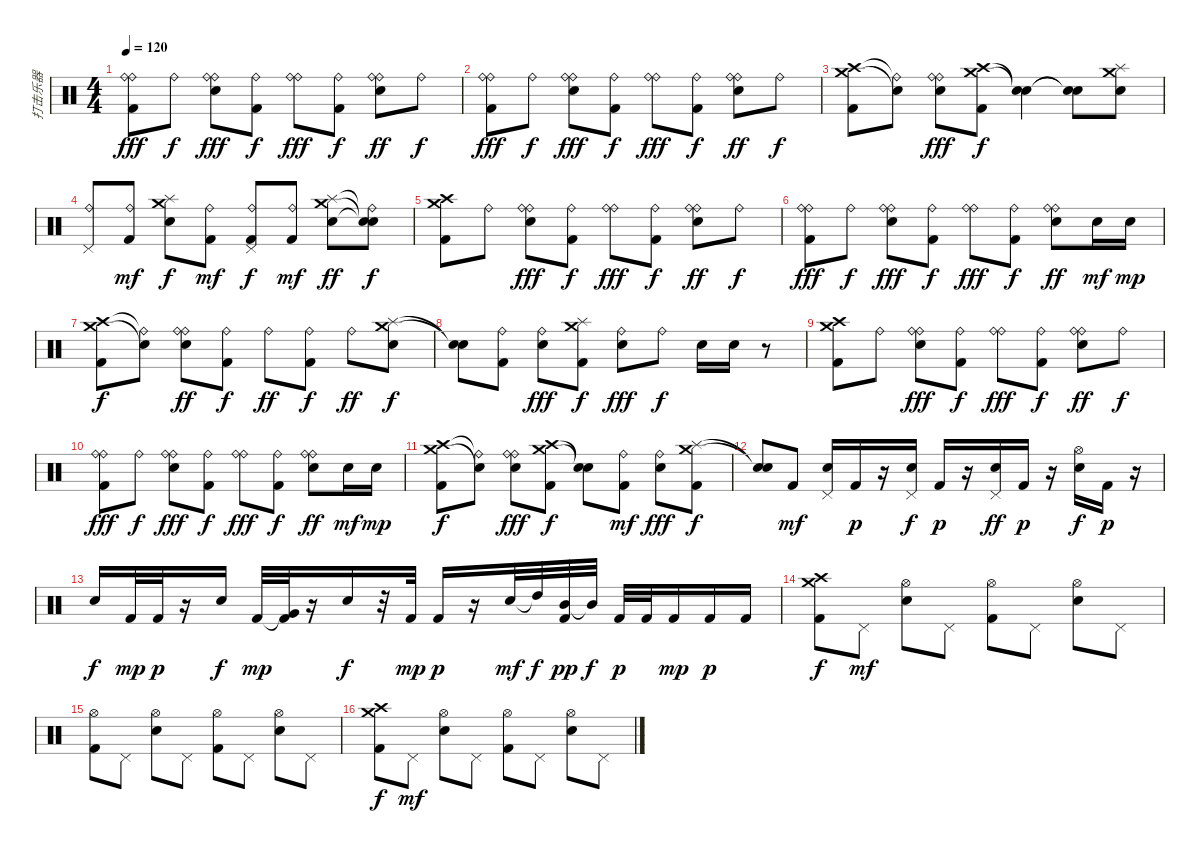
\track ("打击乐器" "打击乐器") {instrument percussion}
\staff {score}
\articulation defaults
\ts (4 4)
\tempo 120
\clef neutral
\ks c
("Ride (bell)" "Ride (bell)" "Kick (hit) 2").8{dy fff} "Ride (bell)".8{dy f} ("Ride (bell)" "Metronome (bell)" "Ride (bell)").8{dy fff} ("Ride (bell)" "Kick (hit) 2").8{dy f} ("Ride (bell)" "Ride (bell)").8{dy fff} ("Ride (bell)" "Kick (hit) 2").8{dy f} ("Ride (bell)" "Metronome (bell)" "Ride (bell)").8{dy ff} "Ride (bell)".8{dy f} |
("Ride (bell)" "Ride (bell)" "Kick (hit) 2").8{dy fff} "Ride (bell)".8{dy f} ("Ride (bell)" "Metronome (bell)" "Ride (bell)").8{dy fff} ("Ride (bell)" "Kick (hit) 2").8{dy f} ("Ride (bell)" "Ride (bell)").8{dy fff} ("Ride (bell)" "Kick (hit) 2").8{dy f} ("Ride (bell)" "Metronome (bell)" "Ride (bell)").8{dy ff} "Ride (bell)".8{dy f} |
("Crash high (hit)" "Crash medium (hit)" "Kick (hit) 2").8 ("Ride (bell)"{t} "Snare (hit)"{t}).8 ("Ride (bell)" "Metronome (bell)" "Ride (bell)").8{dy fff} ("Crash high (hit)" "Crash medium (hit)" "Kick (hit) 2").8{dy f} ("Snare (hit)"{t} "Snare (hit)"{t}).4 ("Snare (hit)"{t} "Snare (hit)"{t}).8 ("Crash medium (hit)" "Splash (hit)" "Metronome (bell)").8 |
("Ride (bell)" "Pedal Hi-Hat (hit)").8 ("Ride (bell)" "Kick (hit) 2").8{dy mf} ("Splash (hit)" "Crash medium (hit)" "Metronome (bell)").8{dy f} ("Ride (bell)" "Kick (hit) 2").8{dy mf} ("Ride (bell)" "Pedal Hi-Hat (hit)" "Kick (hit) 2").8{dy f} ("Ride (bell)" "Kick (hit) 2").8{dy mf} ("Splash (hit)" "Crash medium (hit)" "Metronome (bell)").8{dy ff} ("Ride (bell)"{t} "Snare (hit)"{t} "Snare (hit)"{t}).8{dy f} |
("Crash high (hit)" "Crash medium (hit)" "Kick (hit) 2").8 "Ride (bell)".8 ("Ride (bell)" "Metronome (bell)" "Ride (bell)").8{dy fff} ("Ride (bell)" "Kick (hit) 2").8{dy f} ("Ride (bell)" "Ride (bell)").8{dy fff} ("Ride (bell)" "Kick (hit) 2").8{dy f} ("Ride (bell)" "Metronome (bell)" "Ride (bell)").8{dy ff} "Ride (bell)".8{dy f} |
("Ride (bell)" "Ride (bell)" "Kick (hit) 2").8{dy fff} "Ride (bell)".8{dy f} ("Ride (bell)" "Metronome (bell)" "Ride (bell)").8{dy fff} ("Ride (bell)" "Kick (hit) 2").8{dy f} ("Ride (bell)" "Ride (bell)").8{dy fff} ("Ride (bell)" "Kick (hit) 2").8{dy f} ("Ride (bell)" "Metronome (bell)" "Ride (bell)").8{dy ff} "Metronome (bell)".16{dy mf} "Metronome (bell)".16{dy mp} |
("Crash high (hit)" "Crash medium (hit)" "Kick (hit) 2").8{dy f} ("Ride (bell)"{t} "Snare (hit)"{t}).8 ("Ride (bell)" "Metronome (bell)" "Ride (bell)").8{dy ff} ("Ride (bell)" "Kick (hit) 2").8{dy f} "Ride (bell)".8{dy ff} ("Ride (bell)" "Kick (hit) 2").8{dy f} "Ride (bell)".8{dy ff} ("Crash medium (hit)" "Splash (hit)" "Metronome (bell)").8{dy f} |
("Snare (hit)"{t} "Snare (hit)"{t}).8 ("Ride (bell)" "Kick (hit) 2").8 ("Ride (bell)" "Metronome (bell)").8{dy fff} ("Crash medium (hit)" "Splash (hit)" "Kick (hit) 2").8{dy f} ("Ride (bell)" "Metronome (bell)").8{dy fff} "Ride (bell)".8{dy f} "Metronome (bell)".16 "Metronome (bell)".16 r.8 |
("Crash high (hit)" "Crash medium (hit)" "Kick (hit) 2").8 "Ride (bell)".8 ("Ride (bell)" "Metronome (bell)" "Ride (bell)").8{dy fff} ("Ride (bell)" "Kick (hit) 2").8{dy f} ("Ride (bell)" "Ride (bell)").8{dy fff} ("Ride (bell)" "Kick (hit) 2").8{dy f} ("Ride (bell)" "Metronome (bell)" "Ride (bell)").8{dy ff} "Ride (bell)".8{dy f} |
("Ride (bell)" "Ride (bell)" "Kick (hit) 2").8{dy fff} "Ride (bell)".8{dy f} ("Ride (bell)" "Metronome (bell)" "Ride (bell)").8{dy fff} ("Ride (bell)" "Kick (hit) 2").8{dy f} ("Ride (bell)" "Ride (bell)").8{dy fff} ("Ride (bell)" "Kick (hit) 2").8{dy f} ("Ride (bell)" "Metronome (bell)" "Ride (bell)").8{dy ff} "Metronome (bell)".16{dy mf} "Metronome (bell)".16{dy mp} |
("Crash high (hit)" "Crash medium (hit)" "Kick (hit) 2").8{dy f} ("Ride (bell)"{t} "Snare (hit)"{t}).8 ("Ride (bell)" "Metronome (bell)" "Ride (bell)").8{dy fff} ("Crash high (hit)" "Crash medium (hit)" "Kick (hit) 2").8{dy f} ("Snare (hit)"{t} "Snare (hit)"{t}).8 ("Ride (bell)" "Kick (hit) 2").8{dy mf} ("Ride (bell)" "Metronome (bell)").8{dy fff} ("Crash medium (hit)" "Splash (hit)" "Kick (hit) 2").8{dy f} |
("Snare (hit)"{t} "Snare (hit)"{t}).8 "Kick (hit) 2".8{dy mf} ("Pedal Hi-Hat (hit)" "Metronome (bell)").16 "Kick (hit) 2".16{dy p} r.16 ("Pedal Hi-Hat (hit)" "Metronome (bell)").16{dy f} "Kick (hit) 2".16{dy p} r.16 ("Pedal Hi-Hat (hit)" "Metronome (bell)").16{dy ff} "Kick (hit) 2".16{dy p} r.16 ("Hi-Hat (open)" "Metronome (bell)").16{dy f} "Kick (hit) 2".16{dy p} r.16 |
"Metronome (bell)".16{dy f} "Kick (hit) 2".32{dy mp} "Kick (hit) 2".32{dy p} r.16 "Metronome (bell)".16{dy f} "Kick (hit) 2".32{dy mp} ("Very Low Tom (hit)"{t} "Kick (hit) 2").32 r.16 "Metronome (bell)".16{dy f} r.32 "Kick (hit) 2".32{dy mp} "Kick (hit) 2".16{dy p} r.16 "Metronome (bell)".32{dy mf} "High Tom (hit)"{t}.32{dy f} ("Mid Tom (hit)" "Kick (hit) 2").32{dy pp} "Mid Tom (hit)"{t}.32{dy f} "Kick (hit) 2".32{dy p} "Kick (hit) 2".32 "Kick (hit) 2".16{dy mp} "Kick (hit) 2".16{dy p} "Kick (hit) 2".16 |
("Crash high (hit)" "Crash medium (hit)" "Kick (hit) 2").8{dy f} "Pedal Hi-Hat (hit)".8{dy mf} ("Hi-Hat (open)" "Metronome (bell)").8 "Pedal Hi-Hat (hit)".8 ("Hi-Hat (open)" "Kick (hit) 2").8 "Pedal Hi-Hat (hit)".8 ("Hi-Hat (open)" "Metronome (bell)").8 "Pedal Hi-Hat (hit)".8 |
("Hi-Hat (open)" "Kick (hit) 2").8 "Pedal Hi-Hat (hit)".8 ("Hi-Hat (open)" "Metronome (bell)").8 "Pedal Hi-Hat (hit)".8 ("Hi-Hat (open)" "Kick (hit) 2").8 "Pedal Hi-Hat (hit)".8 ("Hi-Hat (open)" "Metronome (bell)").8 "Pedal Hi-Hat (hit)".8 |
("Crash high (hit)" "Crash medium (hit)" "Kick (hit) 2").8{dy f} "Pedal Hi-Hat (hit)".8{dy mf} ("Hi-Hat (open)" "Metronome (bell)").8 "Pedal Hi-Hat (hit)".8 ("Hi-Hat (open)" "Kick (hit) 2").8 "Pedal Hi-Hat (hit)".8 ("Hi-Hat (open)" "Metronome (bell)").8 "Pedal Hi-Hat (hit)".8
